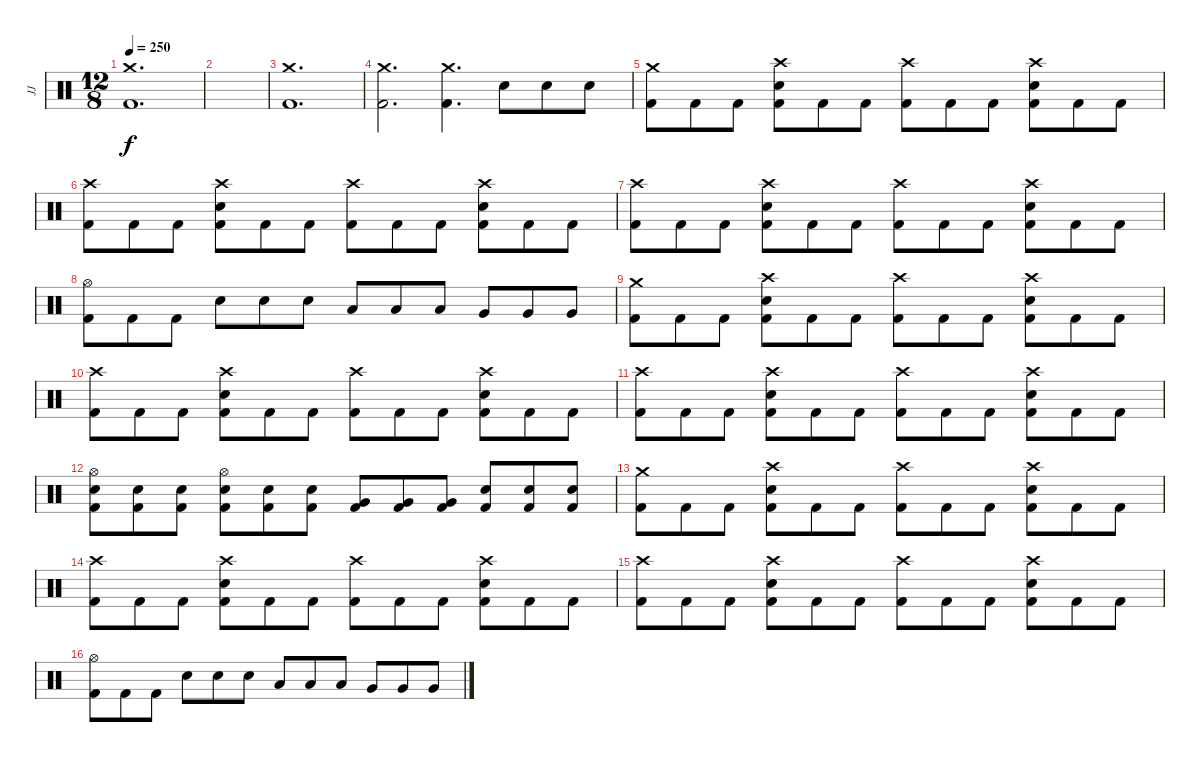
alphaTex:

\track ("JJ" "JJ") {instrument percussion}
\staff {score}
\articulation defaults
\ts (12 8)
\tempo 250
\clef neutral
\ks c
("Crash medium (hit)" "Kick (hit) 2").1{d dy f} |
|
("Crash medium (hit)" "Kick (hit) 2").1{d} |
("Crash medium (hit)" "Kick (hit) 2").2{d} ("Crash medium (hit)" "Kick (hit) 2").4{d} "Electric Snare (hit)".8 "Electric Snare (hit)".8 "Electric Snare (hit)".8 |
("Crash medium (hit)" "Kick (hit) 2").8 "Kick (hit) 2".8 "Kick (hit) 2".8 ("Crash high (hit)" "Electric Snare (hit)" "Kick (hit) 2").8 "Kick (hit) 2".8 "Kick (hit) 2".8 ("Crash high (hit)" "Kick (hit) 2").8 "Kick (hit) 2".8 "Kick (hit) 2".8 ("Crash high (hit)" "Electric Snare (hit)" "Kick (hit) 2").8 "Kick (hit) 2".8 "Kick (hit) 2".8 |
("Crash high (hit)" "Kick (hit) 2").8 "Kick (hit) 2".8 "Kick (hit) 2".8 ("Crash high (hit)" "Electric Snare (hit)" "Kick (hit) 2").8 "Kick (hit) 2".8 "Kick (hit) 2".8 ("Crash high (hit)" "Kick (hit) 2").8 "Kick (hit) 2".8 "Kick (hit) 2".8 ("Crash high (hit)" "Electric Snare (hit)" "Kick (hit) 2").8 "Kick (hit) 2".8 "Kick (hit) 2".8 |
("Crash high (hit)" "Kick (hit) 2").8 "Kick (hit) 2".8 "Kick (hit) 2".8 ("Crash high (hit)" "Electric Snare (hit)" "Kick (hit) 2").8 "Kick (hit) 2".8 "Kick (hit) 2".8 ("Crash high (hit)" "Kick (hit) 2").8 "Kick (hit) 2".8 "Kick (hit) 2".8 ("Crash high (hit)" "Electric Snare (hit)" "Kick (hit) 2").8 "Kick (hit) 2".8 "Kick (hit) 2".8 |
("Hi-Hat (open)" "Kick (hit) 2").8 "Kick (hit) 2".8 "Kick (hit) 2".8 "Electric Snare (hit)".8 "Electric Snare (hit)".8 "Electric Snare (hit)".8 "Low Floor Tom (hit)".8 "Low Floor Tom (hit)".8 "Low Floor Tom (hit)".8 "Very Low Tom (hit)".8 "Very Low Tom (hit)".8 "Very Low Tom (hit)".8 |
("Crash medium (hit)" "Kick (hit) 2").8 "Kick (hit) 2".8 "Kick (hit) 2".8 ("Crash high (hit)" "Electric Snare (hit)" "Kick (hit) 2").8 "Kick (hit) 2".8 "Kick (hit) 2".8 ("Crash high (hit)" "Kick (hit) 2").8 "Kick (hit) 2".8 "Kick (hit) 2".8 ("Crash high (hit)" "Electric Snare (hit)" "Kick (hit) 2").8 "Kick (hit) 2".8 "Kick (hit) 2".8 |
("Crash high (hit)" "Kick (hit) 2").8 "Kick (hit) 2".8 "Kick (hit) 2".8 ("Crash high (hit)" "Electric Snare (hit)" "Kick (hit) 2").8 "Kick (hit) 2".8 "Kick (hit) 2".8 ("Crash high (hit)" "Kick (hit) 2").8 "Kick (hit) 2".8 "Kick (hit) 2".8 ("Crash high (hit)" "Electric Snare (hit)" "Kick (hit) 2").8 "Kick (hit) 2".8 "Kick (hit) 2".8 |
("Crash high (hit)" "Kick (hit) 2").8 "Kick (hit) 2".8 "Kick (hit) 2".8 ("Crash high (hit)" "Electric Snare (hit)" "Kick (hit) 2").8 "Kick (hit) 2".8 "Kick (hit) 2".8 ("Crash high (hit)" "Kick (hit) 2").8 "Kick (hit) 2".8 "Kick (hit) 2".8 ("Crash high (hit)" "Electric Snare (hit)" "Kick (hit) 2").8 "Kick (hit) 2".8 "Kick (hit) 2".8 |
("Hi-Hat (open)" "Electric Snare (hit)" "Kick (hit) 2").8 ("Electric Snare (hit)" "Kick (hit) 2").8 ("Electric Snare (hit)" "Kick (hit) 2").8 ("Hi-Hat (open)" "Electric Snare (hit)" "Kick (hit) 2").8 ("Electric Snare (hit)" "Kick (hit) 2").8 ("Electric Snare (hit)" "Kick (hit) 2").8 ("Very Low Tom (hit)" "Kick (hit) 2").8 ("Very Low Tom (hit)" "Kick (hit) 2").8 ("Very Low Tom (hit)" "Kick (hit) 2").8 ("Electric Snare (hit)" "Kick (hit) 2").8 ("Electric Snare (hit)" "Kick (hit) 2").8 ("Electric Snare (hit)" "Kick (hit) 2").8 |
("Crash medium (hit)" "Kick (hit) 2").8 "Kick (hit) 2".8 "Kick (hit) 2".8 ("Crash high (hit)" "Electric Snare (hit)" "Kick (hit) 2").8 "Kick (hit) 2".8 "Kick (hit) 2".8 ("Crash high (hit)" "Kick (hit) 2").8 "Kick (hit) 2".8 "Kick (hit) 2".8 ("Crash high (hit)" "Electric Snare (hit)" "Kick (hit) 2").8 "Kick (hit) 2".8 "Kick (hit) 2".8 |
("Crash high (hit)" "Kick (hit) 2").8 "Kick (hit) 2".8 "Kick (hit) 2".8 ("Crash high (hit)" "Electric Snare (hit)" "Kick (hit) 2").8 "Kick (hit) 2".8 "Kick (hit) 2".8 ("Crash high (hit)" "Kick (hit) 2").8 "Kick (hit) 2".8 "Kick (hit) 2".8 ("Crash high (hit)" "Electric Snare (hit)" "Kick (hit) 2").8 "Kick (hit) 2".8 "Kick (hit) 2".8 |
("Crash high (hit)" "Kick (hit) 2").8 "Kick (hit) 2".8 "Kick (hit) 2".8 ("Crash high (hit)" "Electric Snare (hit)" "Kick (hit) 2").8 "Kick (hit) 2".8 "Kick (hit) 2".8 ("Crash high (hit)" "Kick (hit) 2").8 "Kick (hit) 2".8 "Kick (hit) 2".8 ("Crash high (hit)" "Electric Snare (hit)" "Kick (hit) 2").8 "Kick (hit) 2".8 "Kick (hit) 2".8 |
("Hi-Hat (open)" "Kick (hit) 2").8 "Kick (hit) 2".8 "Kick (hit) 2".8 "Electric Snare (hit)".8 "Electric Snare (hit)".8 "Electric Snare (hit)".8 "Low Floor Tom (hit)".8 "Low Floor Tom (hit)".8 "Low Floor Tom (hit)".8 "Very Low Tom (hit)".8 "Very Low Tom (hit)".8 "Very Low Tom (hit)".8
